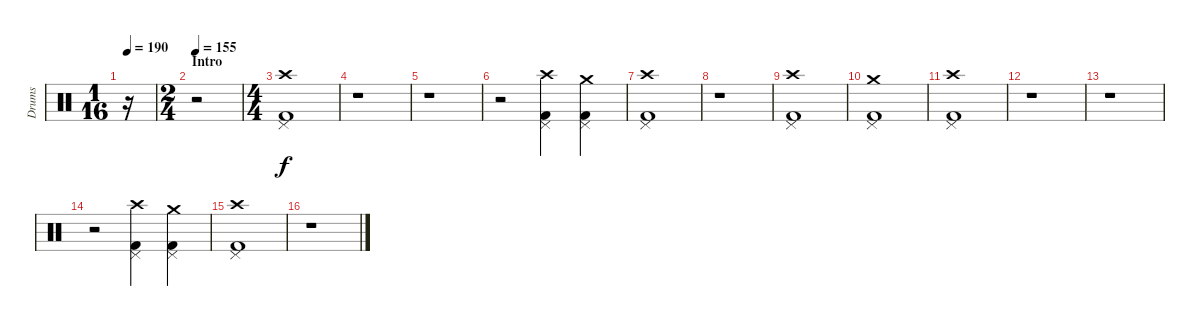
\track ("Drums" "Drums") {instrument percussion}
\staff {score}
\articulation defaults
\ts (1 16)
\tempo 190
\clef neutral
\ks c
r.16{dy f} |
\ts (2 4)
\section ("" "Intro")
\tempo 155
r.2 |
\ts (4 4)
("Kick (hit) 2" "Pedal Hi-Hat (hit)" "Crash high (hit)").1 |
r.1 |
r.1 |
r.2 ("Kick (hit) 2" "Pedal Hi-Hat (hit)" "Crash high (hit)").4 ("Kick (hit) 2" "Pedal Hi-Hat (hit)" "Crash medium (hit)").4 |
("Kick (hit) 2" "Pedal Hi-Hat (hit)" "Crash high (hit)").1 |
r.1 |
("Kick (hit) 2" "Pedal Hi-Hat (hit)" "Crash high (hit)").1 |
("Kick (hit) 2" "Pedal Hi-Hat (hit)" "Crash medium (hit)").1 |
("Kick (hit) 2" "Pedal Hi-Hat (hit)" "Crash high (hit)").1 |
r.1 |
r.1 |
r.2 ("Kick (hit) 2" "Pedal Hi-Hat (hit)" "Crash high (hit)").4 ("Kick (hit) 2" "Pedal Hi-Hat (hit)" "Crash medium (hit)").4 |
("Kick (hit) 2" "Pedal Hi-Hat (hit)" "Crash high (hit)").1 |
r.1
